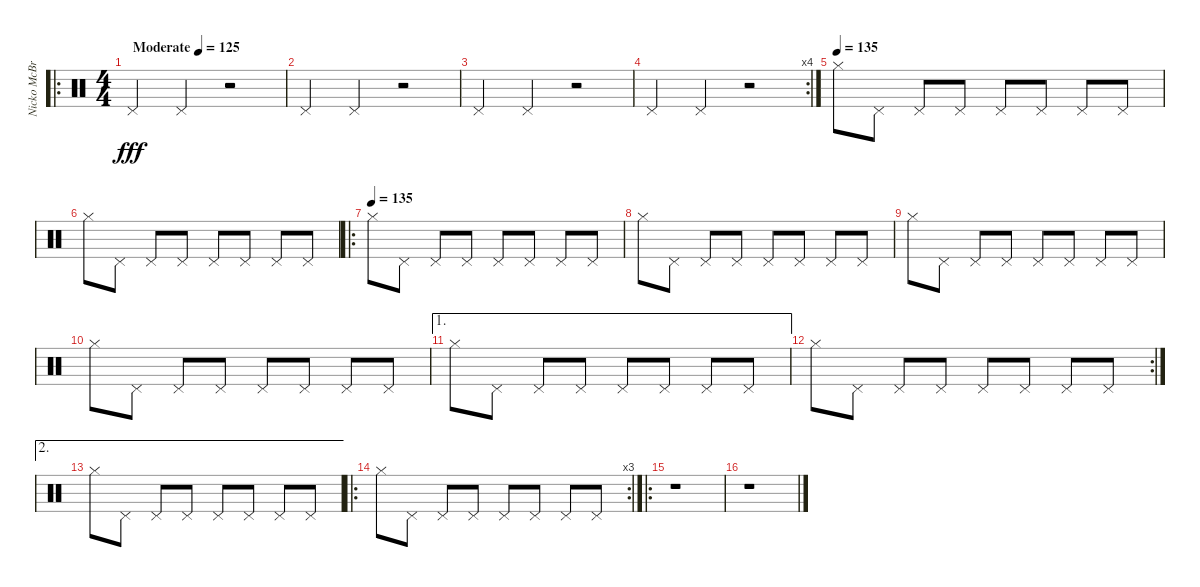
\track ("Nicko McBrain" "Nicko McBr") {instrument percussion}
\staff {score}
\articulation defaults
\ro
\ts (4 4)
\tempo (125 "Moderate")
\tempo 135
\tempo (125 "Moderate")
\clef neutral
\ks c "Pedal Hi-Hat (hit)".4{dy fff} "Pedal Hi-Hat (hit)".4
r.2 |
"Pedal Hi-Hat (hit)".4 "Pedal Hi-Hat (hit)".4 r.2 |
"Pedal Hi-Hat (hit)".4 "Pedal Hi-Hat (hit)".4 r.2 |
\rc 4 "Pedal Hi-Hat (hit)".4 "Pedal Hi-Hat (hit)".4
r.2 |
\tempo (135)
"Hi-Hat (closed)".8 "Pedal Hi-Hat (hit)".8 "Pedal Hi-Hat (hit)".8 "Pedal Hi-Hat (hit)".8 "Pedal Hi-Hat (hit)".8 "Pedal Hi-Hat (hit)".8 "Pedal Hi-Hat (hit)".8 "Pedal Hi-Hat (hit)".8 |
"Hi-Hat (closed)".8 "Pedal Hi-Hat (hit)".8 "Pedal Hi-Hat (hit)".8 "Pedal Hi-Hat (hit)".8 "Pedal Hi-Hat (hit)".8 "Pedal Hi-Hat (hit)".8 "Pedal Hi-Hat (hit)".8 "Pedal Hi-Hat (hit)".8 |
\ro
\tempo (135)
"Hi-Hat (closed)".8 "Pedal Hi-Hat (hit)".8 "Pedal Hi-Hat (hit)".8 "Pedal Hi-Hat (hit)".8 "Pedal Hi-Hat (hit)".8 "Pedal Hi-Hat (hit)".8 "Pedal Hi-Hat (hit)".8 "Pedal Hi-Hat (hit)".8 |
"Hi-Hat (closed)".8 "Pedal Hi-Hat (hit)".8 "Pedal Hi-Hat (hit)".8 "Pedal Hi-Hat (hit)".8 "Pedal Hi-Hat (hit)".8 "Pedal Hi-Hat (hit)".8 "Pedal Hi-Hat (hit)".8 "Pedal Hi-Hat (hit)".8 |
"Hi-Hat (closed)".8 "Pedal Hi-Hat (hit)".8 "Pedal Hi-Hat (hit)".8 "Pedal Hi-Hat (hit)".8 "Pedal Hi-Hat (hit)".8 "Pedal Hi-Hat (hit)".8 "Pedal Hi-Hat (hit)".8 "Pedal Hi-Hat (hit)".8 |
"Hi-Hat (closed)".8 "Pedal Hi-Hat (hit)".8 "Pedal Hi-Hat (hit)".8 "Pedal Hi-Hat (hit)".8 "Pedal Hi-Hat (hit)".8 "Pedal Hi-Hat (hit)".8 "Pedal Hi-Hat (hit)".8 "Pedal Hi-Hat (hit)".8 |
\ae 1 "Hi-Hat (closed)".8 "Pedal Hi-Hat (hit)".8 "Pedal Hi-Hat (hit)".8 "Pedal Hi-Hat (hit)".8 "Pedal Hi-Hat (hit)".8 "Pedal Hi-Hat (hit)".8 "Pedal Hi-Hat (hit)".8 "Pedal Hi-Hat (hit)".8
|
\rc 2 "Hi-Hat (closed)".8 "Pedal Hi-Hat (hit)".8 "Pedal Hi-Hat (hit)".8 "Pedal Hi-Hat (hit)".8 "Pedal Hi-Hat (hit)".8 "Pedal Hi-Hat (hit)".8 "Pedal Hi-Hat (hit)".8 "Pedal Hi-Hat (hit)".8
|
\ae 2 "Hi-Hat (closed)".8 "Pedal Hi-Hat (hit)".8 "Pedal Hi-Hat (hit)".8 "Pedal Hi-Hat (hit)".8 "Pedal Hi-Hat (hit)".8 "Pedal Hi-Hat (hit)".8 "Pedal Hi-Hat (hit)".8 "Pedal Hi-Hat (hit)".8
|
\ro
\rc 3 "Hi-Hat (closed)".8 "Pedal Hi-Hat (hit)".8 "Pedal Hi-Hat (hit)".8 "Pedal Hi-Hat (hit)".8 "Pedal Hi-Hat (hit)".8 "Pedal Hi-Hat (hit)".8 "Pedal Hi-Hat (hit)".8 "Pedal Hi-Hat (hit)".8
|
\ro
r.1 |
r.1
